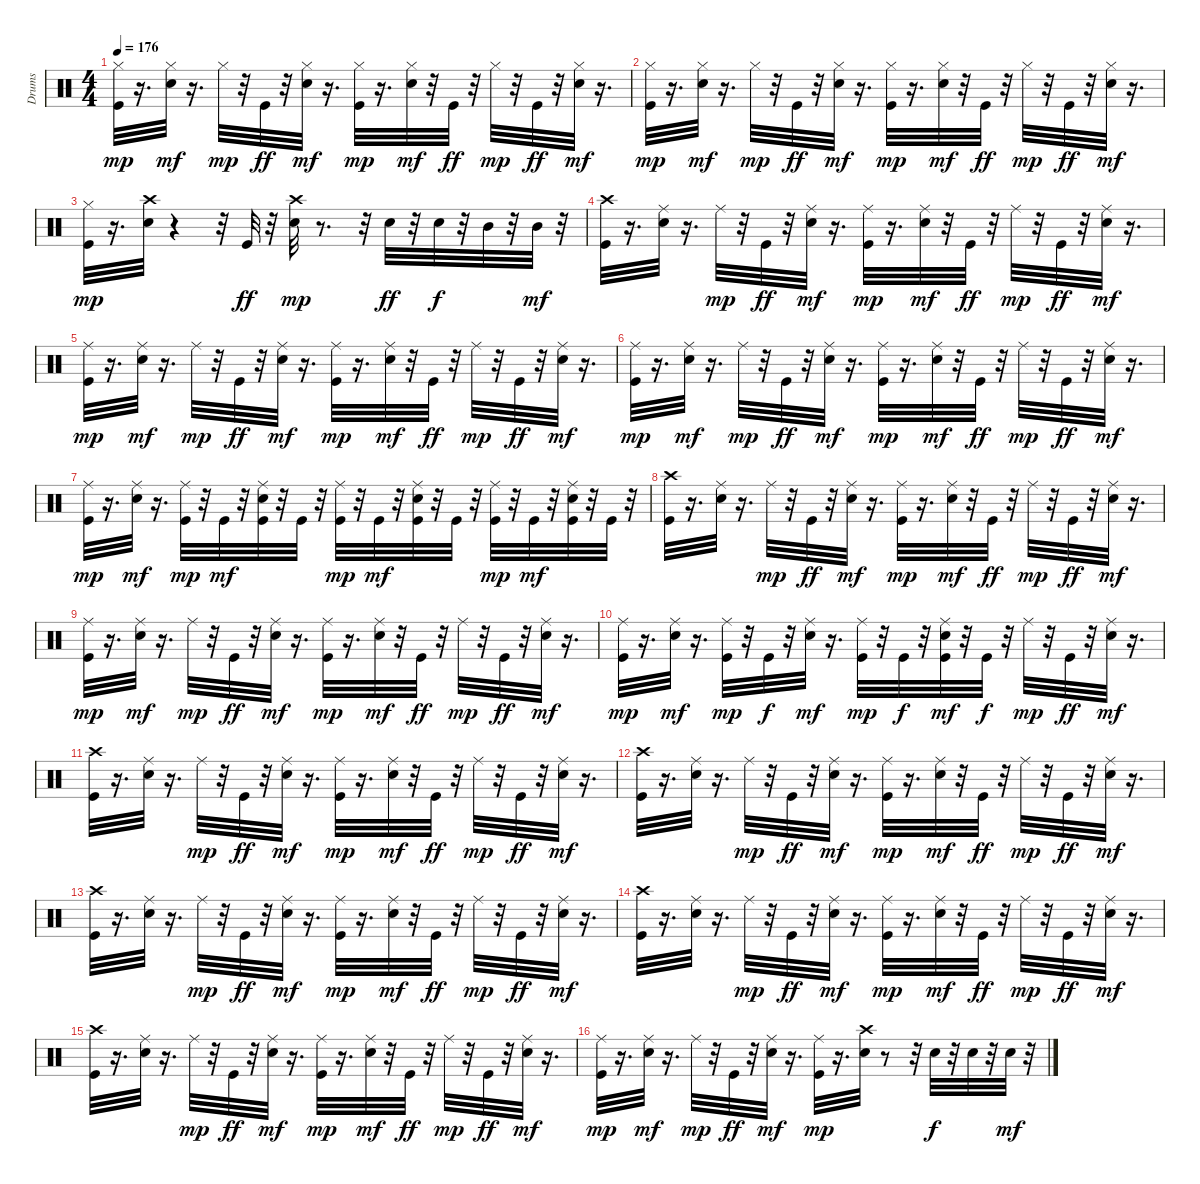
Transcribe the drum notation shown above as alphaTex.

\track ("Drums" "Drums") {instrument percussion}
\staff {score}
\articulation defaults
\ts (4 4)
\tempo 176
\clef neutral
\ks c
("Kick (hit)" "Hi-Hat (closed)").32{dy mp} r.16{d} ("Snare (hit) 2" "Hi-Hat (closed)").32{dy mf} r.16{d} "Hi-Hat (closed)".32{dy mp} r.32 "Kick (hit)".32{dy ff} r.32 ("Snare (hit) 2" "Hi-Hat (closed)").32{dy mf} r.16{d} ("Kick (hit)" "Hi-Hat (closed)").32{dy mp} r.16{d} ("Snare (hit) 2" "Hi-Hat (closed)").32{dy mf} r.32 "Kick (hit)".32{dy ff} r.32 "Hi-Hat (closed)".32{dy mp} r.32 "Kick (hit)".32{dy ff} r.32 ("Snare (hit) 2" "Hi-Hat (closed)").32{dy mf} r.16{d} |
("Kick (hit)" "Hi-Hat (closed)").32{dy mp} r.16{d} ("Snare (hit) 2" "Hi-Hat (closed)").32{dy mf} r.16{d} "Hi-Hat (closed)".32{dy mp} r.32 "Kick (hit)".32{dy ff} r.32 ("Snare (hit) 2" "Hi-Hat (closed)").32{dy mf} r.16{d} ("Kick (hit)" "Hi-Hat (closed)").32{dy mp} r.16{d} ("Snare (hit) 2" "Hi-Hat (closed)").32{dy mf} r.32 "Kick (hit)".32{dy ff} r.32 "Hi-Hat (closed)".32{dy mp} r.32 "Kick (hit)".32{dy ff} r.32 ("Snare (hit) 2" "Hi-Hat (closed)").32{dy mf} r.16{d} |
("Kick (hit)" "Hi-Hat (closed)").32{dy mp} r.16{d} ("Snare (hit) 2" "Crash high (hit)").32 r.4 r.32 "Kick (hit)".32{dy ff} r.32 ("Snare (hit) 2" "Crash high (hit)").32{dy mp} r.8{d} r.32 "Snare (hit) 2".32{dy ff} r.32 "Snare (hit) 2".32{dy f} r.32 "Mid Tom (hit)".32 r.32 "Mid Tom (hit)".32{dy mf} r.32 |
("Kick (hit)" "Crash high (hit)").32 r.16{d} ("Snare (hit) 2" "Ride (middle)").32 r.16{d} "Ride (middle)".32{dy mp} r.32 "Kick (hit)".32{dy ff} r.32 ("Snare (hit) 2" "Ride (middle)").32{dy mf} r.16{d} ("Kick (hit)" "Ride (middle)").32{dy mp} r.16{d} ("Snare (hit) 2" "Ride (middle)").32{dy mf} r.32 "Kick (hit)".32{dy ff} r.32 "Ride (middle)".32{dy mp} r.32 "Kick (hit)".32{dy ff} r.32 ("Snare (hit) 2" "Ride (middle)").32{dy mf} r.16{d} |
("Kick (hit)" "Ride (middle)").32{dy mp} r.16{d} ("Snare (hit) 2" "Ride (middle)").32{dy mf} r.16{d} "Ride (middle)".32{dy mp} r.32 "Kick (hit)".32{dy ff} r.32 ("Snare (hit) 2" "Ride (middle)").32{dy mf} r.16{d} ("Kick (hit)" "Ride (middle)").32{dy mp} r.16{d} ("Snare (hit) 2" "Ride (middle)").32{dy mf} r.32 "Kick (hit)".32{dy ff} r.32 "Ride (middle)".32{dy mp} r.32 "Kick (hit)".32{dy ff} r.32 ("Snare (hit) 2" "Ride (middle)").32{dy mf} r.16{d} |
("Kick (hit)" "Ride (middle)").32{dy mp} r.16{d} ("Snare (hit) 2" "Ride (middle)").32{dy mf} r.16{d} "Ride (middle)".32{dy mp} r.32 "Kick (hit)".32{dy ff} r.32 ("Snare (hit) 2" "Ride (middle)").32{dy mf} r.16{d} ("Kick (hit)" "Ride (middle)").32{dy mp} r.16{d} ("Snare (hit) 2" "Ride (middle)").32{dy mf} r.32 "Kick (hit)".32{dy ff} r.32 "Ride (middle)".32{dy mp} r.32 "Kick (hit)".32{dy ff} r.32 ("Snare (hit) 2" "Ride (middle)").32{dy mf} r.16{d} |
("Kick (hit)" "Ride (middle)").32{dy mp} r.16{d} ("Snare (hit) 2" "Ride (middle)").32{dy mf} r.16{d} ("Kick (hit)" "Ride (middle)").32{dy mp} r.32 "Kick (hit)".32{dy mf} r.32 ("Kick (hit)" "Snare (hit) 2" "Ride (middle)").32 r.32 "Kick (hit)".32 r.32 ("Kick (hit)" "Ride (middle)").32{dy mp} r.32 "Kick (hit)".32{dy mf} r.32 ("Kick (hit)" "Snare (hit) 2" "Ride (middle)").32 r.32 "Kick (hit)".32 r.32 ("Kick (hit)" "Ride (middle)").32{dy mp} r.32 "Kick (hit)".32{dy mf} r.32 ("Kick (hit)" "Snare (hit) 2" "Ride (middle)").32 r.32 "Kick (hit)".32 r.32 |
("Kick (hit)" "Crash high (hit)").32 r.16{d} ("Snare (hit) 2" "Ride (middle)").32 r.16{d} "Ride (middle)".32{dy mp} r.32 "Kick (hit)".32{dy ff} r.32 ("Snare (hit) 2" "Ride (middle)").32{dy mf} r.16{d} ("Kick (hit)" "Ride (middle)").32{dy mp} r.16{d} ("Snare (hit) 2" "Ride (middle)").32{dy mf} r.32 "Kick (hit)".32{dy ff} r.32 "Ride (middle)".32{dy mp} r.32 "Kick (hit)".32{dy ff} r.32 ("Snare (hit) 2" "Ride (middle)").32{dy mf} r.16{d} |
("Kick (hit)" "Ride (middle)").32{dy mp} r.16{d} ("Snare (hit) 2" "Ride (middle)").32{dy mf} r.16{d} "Ride (middle)".32{dy mp} r.32 "Kick (hit)".32{dy ff} r.32 ("Snare (hit) 2" "Ride (middle)").32{dy mf} r.16{d} ("Kick (hit)" "Ride (middle)").32{dy mp} r.16{d} ("Snare (hit) 2" "Ride (middle)").32{dy mf} r.32 "Kick (hit)".32{dy ff} r.32 "Ride (middle)".32{dy mp} r.32 "Kick (hit)".32{dy ff} r.32 ("Snare (hit) 2" "Ride (middle)").32{dy mf} r.16{d} |
("Kick (hit)" "Ride (middle)").32{dy mp} r.16{d} ("Snare (hit) 2" "Ride (middle)").32{dy mf} r.16{d} ("Kick (hit)" "Ride (middle)").32{dy mp} r.32 "Kick (hit)".32{dy f} r.32 ("Snare (hit) 2" "Ride (middle)").32{dy mf} r.16{d} ("Kick (hit)" "Ride (middle)").32{dy mp} r.32 "Kick (hit)".32{dy f} r.32 ("Kick (hit)" "Snare (hit) 2" "Ride (middle)").32{dy mf} r.32 "Kick (hit)".32{dy f} r.32 "Ride (middle)".32{dy mp} r.32 "Kick (hit)".32{dy ff} r.32 ("Snare (hit) 2" "Ride (middle)").32{dy mf} r.16{d} |
("Kick (hit)" "Crash high (hit)").32 r.16{d} ("Snare (hit) 2" "Ride (middle)").32 r.16{d} "Ride (middle)".32{dy mp} r.32 "Kick (hit)".32{dy ff} r.32 ("Snare (hit) 2" "Ride (middle)").32{dy mf} r.16{d} ("Kick (hit)" "Ride (middle)").32{dy mp} r.16{d} ("Snare (hit) 2" "Ride (middle)").32{dy mf} r.32 "Kick (hit)".32{dy ff} r.32 "Ride (middle)".32{dy mp} r.32 "Kick (hit)".32{dy ff} r.32 ("Snare (hit) 2" "Ride (middle)").32{dy mf} r.16{d} |
("Kick (hit)" "Crash high (hit)").32 r.16{d} ("Snare (hit) 2" "Ride (middle)").32 r.16{d} "Ride (middle)".32{dy mp} r.32 "Kick (hit)".32{dy ff} r.32 ("Snare (hit) 2" "Ride (middle)").32{dy mf} r.16{d} ("Kick (hit)" "Ride (middle)").32{dy mp} r.16{d} ("Snare (hit) 2" "Ride (middle)").32{dy mf} r.32 "Kick (hit)".32{dy ff} r.32 "Ride (middle)".32{dy mp} r.32 "Kick (hit)".32{dy ff} r.32 ("Snare (hit) 2" "Ride (middle)").32{dy mf} r.16{d} |
("Kick (hit)" "Crash high (hit)").32 r.16{d} ("Snare (hit) 2" "Ride (middle)").32 r.16{d} "Ride (middle)".32{dy mp} r.32 "Kick (hit)".32{dy ff} r.32 ("Snare (hit) 2" "Ride (middle)").32{dy mf} r.16{d} ("Kick (hit)" "Ride (middle)").32{dy mp} r.16{d} ("Snare (hit) 2" "Ride (middle)").32{dy mf} r.32 "Kick (hit)".32{dy ff} r.32 "Ride (middle)".32{dy mp} r.32 "Kick (hit)".32{dy ff} r.32 ("Snare (hit) 2" "Ride (middle)").32{dy mf} r.16{d} |
("Kick (hit)" "Crash high (hit)").32 r.16{d} ("Snare (hit) 2" "Ride (middle)").32 r.16{d} "Ride (middle)".32{dy mp} r.32 "Kick (hit)".32{dy ff} r.32 ("Snare (hit) 2" "Ride (middle)").32{dy mf} r.16{d} ("Kick (hit)" "Ride (middle)").32{dy mp} r.16{d} ("Snare (hit) 2" "Ride (middle)").32{dy mf} r.32 "Kick (hit)".32{dy ff} r.32 "Ride (middle)".32{dy mp} r.32 "Kick (hit)".32{dy ff} r.32 ("Snare (hit) 2" "Ride (middle)").32{dy mf} r.16{d} |
("Kick (hit)" "Crash high (hit)").32 r.16{d} ("Snare (hit) 2" "Ride (middle)").32 r.16{d} "Ride (middle)".32{dy mp} r.32 "Kick (hit)".32{dy ff} r.32 ("Snare (hit) 2" "Ride (middle)").32{dy mf} r.16{d} ("Kick (hit)" "Ride (middle)").32{dy mp} r.16{d} ("Snare (hit) 2" "Ride (middle)").32{dy mf} r.32 "Kick (hit)".32{dy ff} r.32 "Ride (middle)".32{dy mp} r.32 "Kick (hit)".32{dy ff} r.32 ("Snare (hit) 2" "Ride (middle)").32{dy mf} r.16{d} |
("Kick (hit)" "Ride (middle)").32{dy mp} r.16{d} ("Snare (hit) 2" "Ride (middle)").32{dy mf} r.16{d} "Ride (middle)".32{dy mp} r.32 "Kick (hit)".32{dy ff} r.32 ("Snare (hit) 2" "Ride (middle)").32{dy mf} r.16{d} ("Kick (hit)" "Ride (middle)").32{dy mp} r.16{d} ("Snare (hit) 2" "Crash high (hit)").32 r.8 r.32 "Snare (hit) 2".32{dy f} r.32 "Snare (hit) 2".32 r.32 "Snare (hit) 2".32{dy mf} r.32
